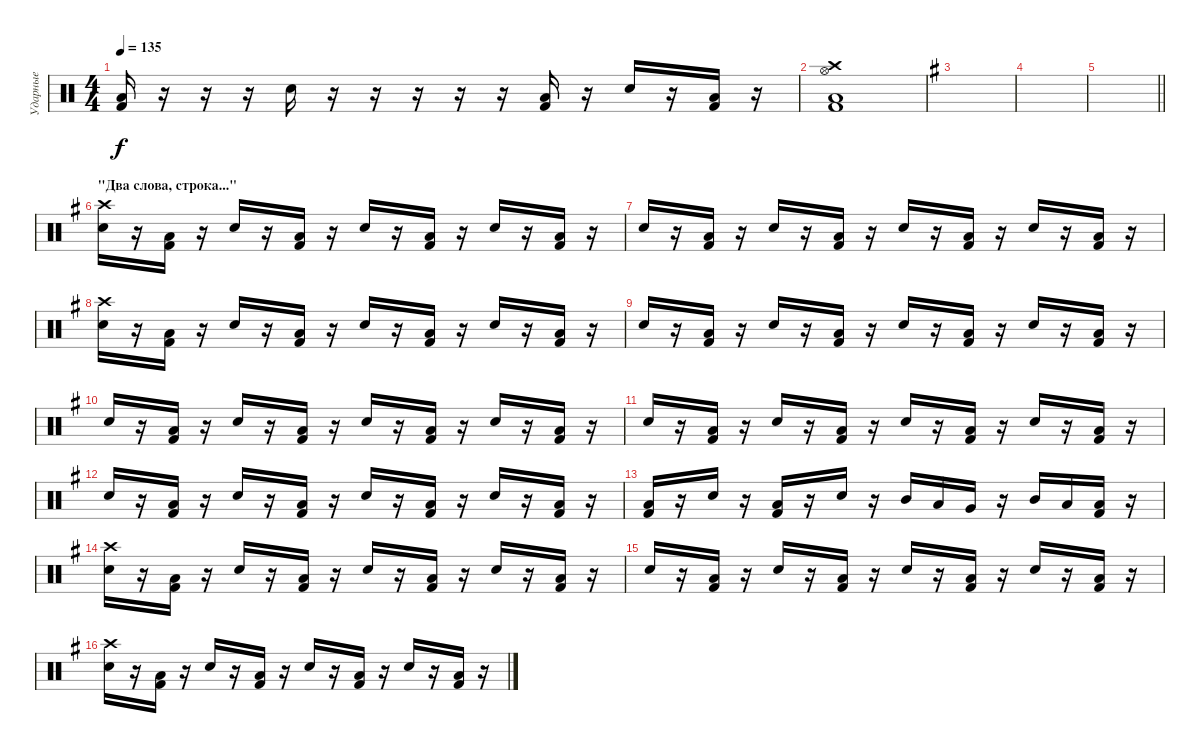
\track ("Ударные" "Ударные") {instrument percussion}
\staff {score}
\articulation defaults
\ts (4 4)
\tempo 135
\clef neutral
\ks c
("Low Floor Tom (hit)" "Kick (hit) 2").16{dy f} r.16 r.16 r.16 "Electric Snare (hit)".16 r.16 r.16 r.16 r.16 r.16 ("Low Floor Tom (hit)" "Kick (hit) 2").16 r.16 "Electric Snare (hit)".16 r.16 ("Low Floor Tom (hit)" "Kick (hit) 2").16 r.16 |
("Crash high (hit)" "Hi-Hat (open)" "Low Floor Tom (hit)" "Kick (hit) 2").1 |
\ks eminor
|
|
\barLineRight lightlight
|
\section ("" "\"Два слова, строка...\"")
("Crash high (hit)" "Electric Snare (hit)").16 r.16 ("Low Floor Tom (hit)" "Kick (hit) 2").16 r.16 "Electric Snare (hit)".16 r.16 ("Low Floor Tom (hit)" "Kick (hit) 2").16 r.16 "Electric Snare (hit)".16 r.16 ("Low Floor Tom (hit)" "Kick (hit) 2").16 r.16 "Electric Snare (hit)".16 r.16 ("Low Floor Tom (hit)" "Kick (hit) 2").16 r.16 |
"Electric Snare (hit)".16 r.16 ("Low Floor Tom (hit)" "Kick (hit) 2").16 r.16 "Electric Snare (hit)".16 r.16 ("Low Floor Tom (hit)" "Kick (hit) 2").16 r.16 "Electric Snare (hit)".16 r.16 ("Low Floor Tom (hit)" "Kick (hit) 2").16 r.16 "Electric Snare (hit)".16 r.16 ("Low Floor Tom (hit)" "Kick (hit) 2").16 r.16 |
("Crash high (hit)" "Electric Snare (hit)").16 r.16 ("Low Floor Tom (hit)" "Kick (hit) 2").16 r.16 "Electric Snare (hit)".16 r.16 ("Low Floor Tom (hit)" "Kick (hit) 2").16 r.16 "Electric Snare (hit)".16 r.16 ("Low Floor Tom (hit)" "Kick (hit) 2").16 r.16 "Electric Snare (hit)".16 r.16 ("Low Floor Tom (hit)" "Kick (hit) 2").16 r.16 |
"Electric Snare (hit)".16 r.16 ("Low Floor Tom (hit)" "Kick (hit) 2").16 r.16 "Electric Snare (hit)".16 r.16 ("Low Floor Tom (hit)" "Kick (hit) 2").16 r.16 "Electric Snare (hit)".16 r.16 ("Low Floor Tom (hit)" "Kick (hit) 2").16 r.16 "Electric Snare (hit)".16 r.16 ("Low Floor Tom (hit)" "Kick (hit) 2").16 r.16 |
"Electric Snare (hit)".16 r.16 ("Low Floor Tom (hit)" "Kick (hit) 2").16 r.16 "Electric Snare (hit)".16 r.16 ("Low Floor Tom (hit)" "Kick (hit) 2").16 r.16 "Electric Snare (hit)".16 r.16 ("Low Floor Tom (hit)" "Kick (hit) 2").16 r.16 "Electric Snare (hit)".16 r.16 ("Low Floor Tom (hit)" "Kick (hit) 2").16 r.16 |
"Electric Snare (hit)".16 r.16 ("Low Floor Tom (hit)" "Kick (hit) 2").16 r.16 "Electric Snare (hit)".16 r.16 ("Low Floor Tom (hit)" "Kick (hit) 2").16 r.16 "Electric Snare (hit)".16 r.16 ("Low Floor Tom (hit)" "Kick (hit) 2").16 r.16 "Electric Snare (hit)".16 r.16 ("Low Floor Tom (hit)" "Kick (hit) 2").16 r.16 |
"Electric Snare (hit)".16 r.16 ("Low Floor Tom (hit)" "Kick (hit) 2").16 r.16 "Electric Snare (hit)".16 r.16 ("Low Floor Tom (hit)" "Kick (hit) 2").16 r.16 "Electric Snare (hit)".16 r.16 ("Low Floor Tom (hit)" "Kick (hit) 2").16 r.16 "Electric Snare (hit)".16 r.16 ("Low Floor Tom (hit)" "Kick (hit) 2").16 r.16 |
("Low Floor Tom (hit)" "Kick (hit) 2").16 r.16 "Electric Snare (hit)".16 r.16 ("Low Floor Tom (hit)" "Kick (hit) 2").16 r.16 "Electric Snare (hit)".16 r.16 "Mid Tom (hit)".16 "Low Tom (hit)".16 "Very Low Tom (hit)".16 r.16 "Mid Tom (hit)".16 "Low Tom (hit)".16 ("Low Floor Tom (hit)" "Kick (hit) 2").16 r.16 |
("Crash high (hit)" "Electric Snare (hit)").16 r.16 ("Low Floor Tom (hit)" "Kick (hit) 2").16 r.16 "Electric Snare (hit)".16 r.16 ("Low Floor Tom (hit)" "Kick (hit) 2").16 r.16 "Electric Snare (hit)".16 r.16 ("Low Floor Tom (hit)" "Kick (hit) 2").16 r.16 "Electric Snare (hit)".16 r.16 ("Low Floor Tom (hit)" "Kick (hit) 2").16 r.16 |
"Electric Snare (hit)".16 r.16 ("Low Floor Tom (hit)" "Kick (hit) 2").16 r.16 "Electric Snare (hit)".16 r.16 ("Low Floor Tom (hit)" "Kick (hit) 2").16 r.16 "Electric Snare (hit)".16 r.16 ("Low Floor Tom (hit)" "Kick (hit) 2").16 r.16 "Electric Snare (hit)".16 r.16 ("Low Floor Tom (hit)" "Kick (hit) 2").16 r.16 |
("Crash high (hit)" "Electric Snare (hit)").16 r.16 ("Low Floor Tom (hit)" "Kick (hit) 2").16 r.16 "Electric Snare (hit)".16 r.16 ("Low Floor Tom (hit)" "Kick (hit) 2").16 r.16 "Electric Snare (hit)".16 r.16 ("Low Floor Tom (hit)" "Kick (hit) 2").16 r.16 "Electric Snare (hit)".16 r.16 ("Low Floor Tom (hit)" "Kick (hit) 2").16 r.16
